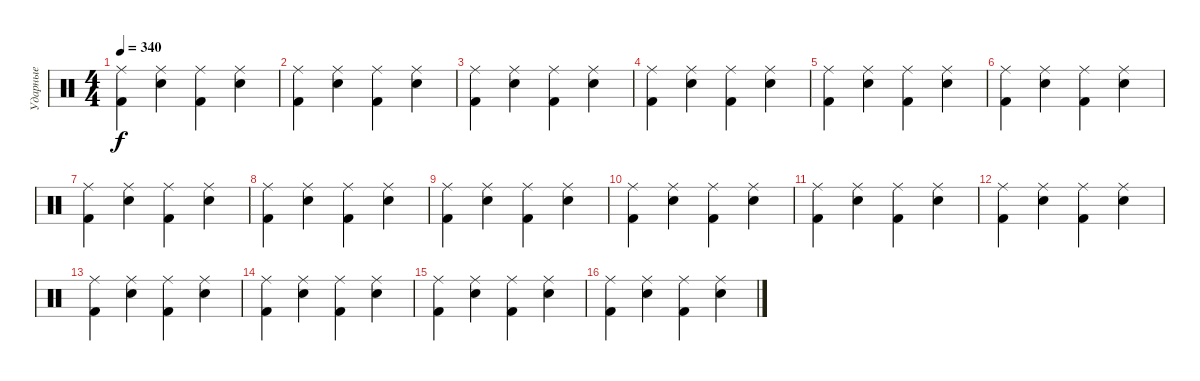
\track ("Ударные" "Ударные") {instrument percussion}
\staff {score}
\articulation defaults
\ts (4 4)
\tempo 340
\clef neutral
\ks c
("Kick (hit) 2" "Ride (middle)").4{dy f} ("Electric Snare (hit)" "Ride (middle)").4 ("Kick (hit) 2" "Ride (middle)").4 ("Electric Snare (hit)" "Ride (middle)").4 |
("Kick (hit) 2" "Ride (middle)").4 ("Electric Snare (hit)" "Ride (middle)").4 ("Kick (hit) 2" "Ride (middle)").4 ("Electric Snare (hit)" "Ride (middle)").4 |
("Kick (hit) 2" "Ride (middle)").4 ("Electric Snare (hit)" "Ride (middle)").4 ("Kick (hit) 2" "Ride (middle)").4 ("Electric Snare (hit)" "Ride (middle)").4 |
("Kick (hit) 2" "Ride (middle)").4 ("Electric Snare (hit)" "Ride (middle)").4 ("Kick (hit) 2" "Ride (middle)").4 ("Electric Snare (hit)" "Ride (middle)").4 |
("Kick (hit) 2" "Ride (middle)").4 ("Electric Snare (hit)" "Ride (middle)").4 ("Kick (hit) 2" "Ride (middle)").4 ("Electric Snare (hit)" "Ride (middle)").4 |
("Kick (hit) 2" "Ride (middle)").4 ("Electric Snare (hit)" "Ride (middle)").4 ("Kick (hit) 2" "Ride (middle)").4 ("Electric Snare (hit)" "Ride (middle)").4 |
("Kick (hit) 2" "Ride (middle)").4 ("Electric Snare (hit)" "Ride (middle)").4 ("Kick (hit) 2" "Ride (middle)").4 ("Electric Snare (hit)" "Ride (middle)").4 |
("Kick (hit) 2" "Ride (middle)").4 ("Electric Snare (hit)" "Ride (middle)").4 ("Kick (hit) 2" "Ride (middle)").4 ("Electric Snare (hit)" "Ride (middle)").4 |
("Kick (hit) 2" "Ride (middle)").4 ("Electric Snare (hit)" "Ride (middle)").4 ("Kick (hit) 2" "Ride (middle)").4 ("Electric Snare (hit)" "Ride (middle)").4 |
("Kick (hit) 2" "Ride (middle)").4 ("Electric Snare (hit)" "Ride (middle)").4 ("Kick (hit) 2" "Ride (middle)").4 ("Electric Snare (hit)" "Ride (middle)").4 |
("Kick (hit) 2" "Ride (middle)").4 ("Electric Snare (hit)" "Ride (middle)").4 ("Kick (hit) 2" "Ride (middle)").4 ("Electric Snare (hit)" "Ride (middle)").4 |
("Kick (hit) 2" "Ride (middle)").4 ("Electric Snare (hit)" "Ride (middle)").4 ("Kick (hit) 2" "Ride (middle)").4 ("Electric Snare (hit)" "Ride (middle)").4 |
("Kick (hit) 2" "Ride (middle)").4 ("Electric Snare (hit)" "Ride (middle)").4 ("Kick (hit) 2" "Ride (middle)").4 ("Electric Snare (hit)" "Ride (middle)").4 |
("Kick (hit) 2" "Ride (middle)").4 ("Electric Snare (hit)" "Ride (middle)").4 ("Kick (hit) 2" "Ride (middle)").4 ("Electric Snare (hit)" "Ride (middle)").4 |
("Kick (hit) 2" "Ride (middle)").4 ("Electric Snare (hit)" "Ride (middle)").4 ("Kick (hit) 2" "Ride (middle)").4 ("Electric Snare (hit)" "Ride (middle)").4 |
("Kick (hit) 2" "Ride (middle)").4 ("Electric Snare (hit)" "Ride (middle)").4 ("Kick (hit) 2" "Ride (middle)").4 ("Electric Snare (hit)" "Ride (middle)").4
